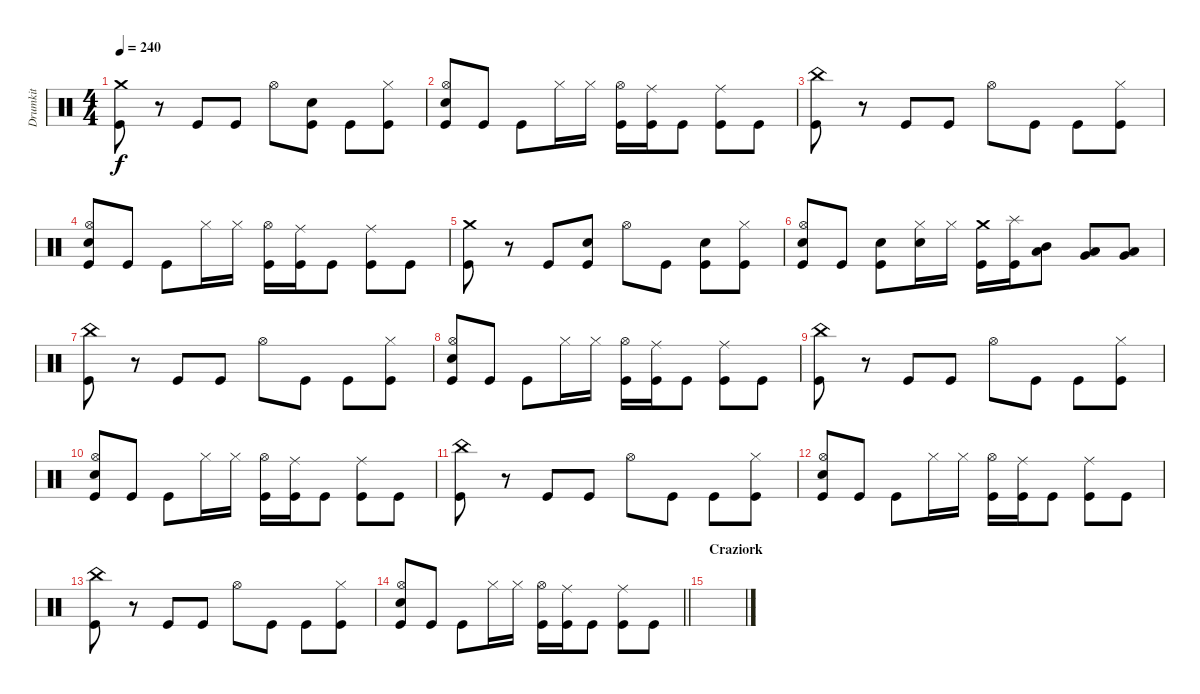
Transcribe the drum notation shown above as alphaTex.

\track ("Drumkit" "Drumkit") {instrument percussion}
\staff {score}
\articulation defaults
\ts (4 4)
\tempo 240
\clef neutral
\ks c
("Crash medium (hit)" "Kick (hit)").8{dy f} r.8 "Kick (hit)".8 "Kick (hit)".8 "Hi-Hat (open)".8 ("Snare (hit) 2" "Kick (hit)").8 "Kick (hit)".8 ("Hi-Hat (closed)" "Kick (hit)").8 |
("Hi-Hat (open)" "Snare (hit) 2" "Kick (hit)").8 "Kick (hit)".8 "Kick (hit)".8 "Hi-Hat (closed)".16 "Hi-Hat (closed)".16 ("Hi-Hat (open)" "Kick (hit)").16 ("Ride (middle)" "Kick (hit)").16 "Kick (hit)".8 ("Ride (middle)" "Kick (hit)").8 "Kick (hit)".8 |
("China (hit)" "Kick (hit)").8 r.8 "Kick (hit)".8 "Kick (hit)".8 "Hi-Hat (open)".8 "Kick (hit)".8 "Kick (hit)".8 ("Hi-Hat (closed)" "Kick (hit)").8 |
("Hi-Hat (open)" "Snare (hit) 2" "Kick (hit)").8 "Kick (hit)".8 "Kick (hit)".8 "Hi-Hat (closed)".16 "Hi-Hat (closed)".16 ("Hi-Hat (open)" "Kick (hit)").16 ("Ride (middle)" "Kick (hit)").16 "Kick (hit)".8 ("Ride (middle)" "Kick (hit)").8 "Kick (hit)".8 |
("Crash medium (hit)" "Kick (hit)").8 r.8 "Kick (hit)".8 ("Snare (hit) 2" "Kick (hit)").8 "Hi-Hat (open)".8 "Kick (hit)".8 ("Snare (hit) 2" "Kick (hit)").8 ("Hi-Hat (closed)" "Kick (hit)").8 |
("Hi-Hat (open)" "Snare (hit) 2" "Kick (hit)").8 "Kick (hit)".8 ("Snare (hit) 2" "Kick (hit)").8 ("Hi-Hat (closed)" "Snare (hit) 2").16 "Hi-Hat (closed)".16 ("Crash medium (hit)" "Kick (hit)").16 ("Splash (hit)" "Kick (hit)").16 ("Mid Tom (hit)" "Low Tom (hit)").8 ("Low Tom (hit)" "Very Low Tom (hit)").8 ("Very Low Tom (hit)" "Low Floor Tom (hit)").8 |
("China (hit)" "Kick (hit)").8 r.8 "Kick (hit)".8 "Kick (hit)".8 "Hi-Hat (open)".8 "Kick (hit)".8 "Kick (hit)".8 ("Hi-Hat (closed)" "Kick (hit)").8 |
("Hi-Hat (open)" "Snare (hit) 2" "Kick (hit)").8 "Kick (hit)".8 "Kick (hit)".8 "Hi-Hat (closed)".16 "Hi-Hat (closed)".16 ("Hi-Hat (open)" "Kick (hit)").16 ("Ride (middle)" "Kick (hit)").16 "Kick (hit)".8 ("Ride (middle)" "Kick (hit)").8 "Kick (hit)".8 |
("China (hit)" "Kick (hit)").8 r.8 "Kick (hit)".8 "Kick (hit)".8 "Hi-Hat (open)".8 "Kick (hit)".8 "Kick (hit)".8 ("Hi-Hat (closed)" "Kick (hit)").8 |
("Hi-Hat (open)" "Snare (hit) 2" "Kick (hit)").8 "Kick (hit)".8 "Kick (hit)".8 "Hi-Hat (closed)".16 "Hi-Hat (closed)".16 ("Hi-Hat (open)" "Kick (hit)").16 ("Ride (middle)" "Kick (hit)").16 "Kick (hit)".8 ("Ride (middle)" "Kick (hit)").8 "Kick (hit)".8 |
("China (hit)" "Kick (hit)").8 r.8 "Kick (hit)".8 "Kick (hit)".8 "Hi-Hat (open)".8 "Kick (hit)".8 "Kick (hit)".8 ("Hi-Hat (closed)" "Kick (hit)").8 |
("Hi-Hat (open)" "Snare (hit) 2" "Kick (hit)").8 "Kick (hit)".8 "Kick (hit)".8 "Hi-Hat (closed)".16 "Hi-Hat (closed)".16 ("Hi-Hat (open)" "Kick (hit)").16 ("Ride (middle)" "Kick (hit)").16 "Kick (hit)".8 ("Ride (middle)" "Kick (hit)").8 "Kick (hit)".8 |
("China (hit)" "Kick (hit)").8 r.8 "Kick (hit)".8 "Kick (hit)".8 "Hi-Hat (open)".8 "Kick (hit)".8 "Kick (hit)".8 ("Hi-Hat (closed)" "Kick (hit)").8 |
\barLineRight lightlight
("Hi-Hat (open)" "Snare (hit) 2" "Kick (hit)").8 "Kick (hit)".8 "Kick (hit)".8 "Hi-Hat (closed)".16 "Hi-Hat (closed)".16 ("Hi-Hat (open)" "Kick (hit)").16 ("Ride (middle)" "Kick (hit)").16 "Kick (hit)".8 ("Ride (middle)" "Kick (hit)").8 "Kick (hit)".8 |
\section ("" "Craziork")
